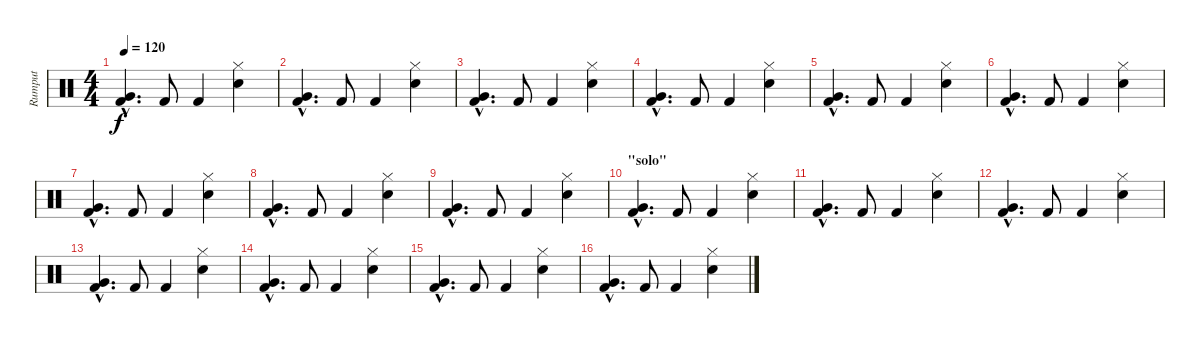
\track ("Rumput" "Rumput") {instrument percussion}
\staff {score}
\articulation defaults
\ts (4 4)
\tempo 120
\clef neutral
\ks c
("Very Low Tom (hit)"{hac} "Kick (hit) 2"{hac}).4{d dy f} "Kick (hit) 2".8 "Kick (hit) 2".4 ("Hi-Hat (closed)" "Snare (hit) 2").4 |
("Very Low Tom (hit)"{hac} "Kick (hit) 2"{hac}).4{d} "Kick (hit) 2".8 "Kick (hit) 2".4 ("Hi-Hat (closed)" "Snare (hit) 2").4 |
("Very Low Tom (hit)"{hac} "Kick (hit) 2"{hac}).4{d} "Kick (hit) 2".8 "Kick (hit) 2".4 ("Hi-Hat (closed)" "Snare (hit) 2").4 |
("Very Low Tom (hit)"{hac} "Kick (hit) 2"{hac}).4{d} "Kick (hit) 2".8 "Kick (hit) 2".4 ("Hi-Hat (closed)" "Snare (hit) 2").4 |
("Very Low Tom (hit)"{hac} "Kick (hit) 2"{hac}).4{d} "Kick (hit) 2".8 "Kick (hit) 2".4 ("Hi-Hat (closed)" "Snare (hit) 2").4 |
("Very Low Tom (hit)"{hac} "Kick (hit) 2"{hac}).4{d} "Kick (hit) 2".8 "Kick (hit) 2".4 ("Hi-Hat (closed)" "Snare (hit) 2").4 |
("Very Low Tom (hit)"{hac} "Kick (hit) 2"{hac}).4{d} "Kick (hit) 2".8 "Kick (hit) 2".4 ("Hi-Hat (closed)" "Snare (hit) 2").4 |
("Very Low Tom (hit)"{hac} "Kick (hit) 2"{hac}).4{d} "Kick (hit) 2".8 "Kick (hit) 2".4 ("Hi-Hat (closed)" "Snare (hit) 2").4 |
("Very Low Tom (hit)"{hac} "Kick (hit) 2"{hac}).4{d} "Kick (hit) 2".8 "Kick (hit) 2".4 ("Hi-Hat (closed)" "Snare (hit) 2").4 |
\section ("" "\"solo\"")
("Very Low Tom (hit)"{hac} "Kick (hit) 2"{hac}).4{d} "Kick (hit) 2".8 "Kick (hit) 2".4 ("Hi-Hat (closed)" "Snare (hit) 2").4 |
("Very Low Tom (hit)"{hac} "Kick (hit) 2"{hac}).4{d} "Kick (hit) 2".8 "Kick (hit) 2".4 ("Hi-Hat (closed)" "Snare (hit) 2").4 |
("Very Low Tom (hit)"{hac} "Kick (hit) 2"{hac}).4{d} "Kick (hit) 2".8 "Kick (hit) 2".4 ("Hi-Hat (closed)" "Snare (hit) 2").4 |
("Very Low Tom (hit)"{hac} "Kick (hit) 2"{hac}).4{d} "Kick (hit) 2".8 "Kick (hit) 2".4 ("Hi-Hat (closed)" "Snare (hit) 2").4 |
("Very Low Tom (hit)"{hac} "Kick (hit) 2"{hac}).4{d} "Kick (hit) 2".8 "Kick (hit) 2".4 ("Hi-Hat (closed)" "Snare (hit) 2").4 |
("Very Low Tom (hit)"{hac} "Kick (hit) 2"{hac}).4{d} "Kick (hit) 2".8 "Kick (hit) 2".4 ("Hi-Hat (closed)" "Snare (hit) 2").4 |
("Very Low Tom (hit)"{hac} "Kick (hit) 2"{hac}).4{d} "Kick (hit) 2".8 "Kick (hit) 2".4 ("Hi-Hat (closed)" "Snare (hit) 2").4
